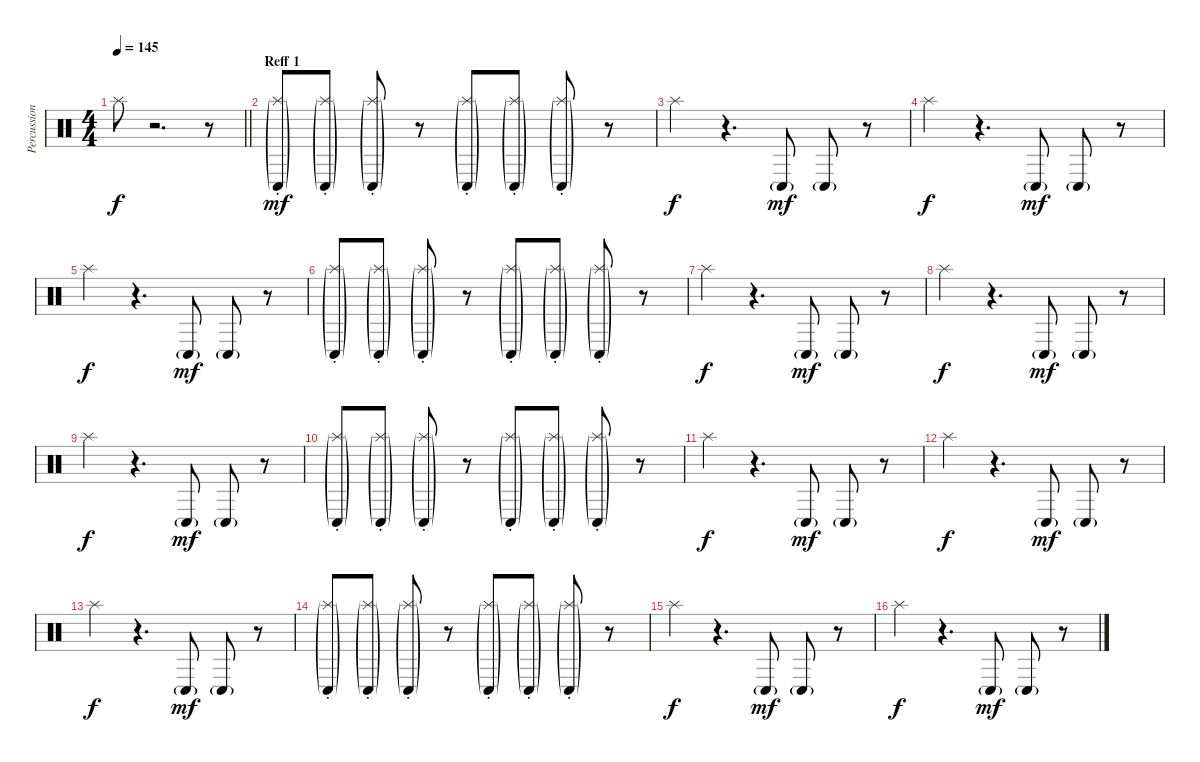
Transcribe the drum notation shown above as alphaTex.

\track ("Percussion 2" "Percussion") {instrument percussion}
\staff {score}
\articulation defaults
\ts (4 4)
\tempo 145
\clef neutral
\barLineRight lightlight
\ks c "Splash (hit)".8{dy f}
r.2{d} r.8 |
\section ("" "Reff 1")
("Splash (hit)"{g st} "Conga low (hit)"{g}).8{dy mf} ("Splash (hit)"{g st} "Conga low (hit)"{g}).8 ("Splash (hit)"{g st} "Conga low (hit)"{g}).8 r.8 ("Splash (hit)"{g st} "Conga low (hit)"{g}).8 ("Splash (hit)"{g st} "Conga low (hit)"{g}).8 ("Splash (hit)"{g st} "Conga low (hit)"{g}).8 r.8 |
"Splash (hit)".4{dy f} r.4{d} "Conga low (hit)"{g}.8{dy mf} "Conga low (hit)"{g}.8 r.8 |
"Splash (hit)".4{dy f} r.4{d} "Conga low (hit)"{g}.8{dy mf} "Conga low (hit)"{g}.8 r.8 |
"Splash (hit)".4{dy f} r.4{d} "Conga low (hit)"{g}.8{dy mf} "Conga low (hit)"{g}.8 r.8 |
("Splash (hit)"{g st} "Conga low (hit)"{g}).8 ("Splash (hit)"{g st} "Conga low (hit)"{g}).8 ("Splash (hit)"{g st} "Conga low (hit)"{g}).8 r.8 ("Splash (hit)"{g st} "Conga low (hit)"{g}).8 ("Splash (hit)"{g st} "Conga low (hit)"{g}).8 ("Splash (hit)"{g st} "Conga low (hit)"{g}).8 r.8 |
"Splash (hit)".4{dy f} r.4{d} "Conga low (hit)"{g}.8{dy mf} "Conga low (hit)"{g}.8 r.8 |
"Splash (hit)".4{dy f} r.4{d} "Conga low (hit)"{g}.8{dy mf} "Conga low (hit)"{g}.8 r.8 |
"Splash (hit)".4{dy f} r.4{d} "Conga low (hit)"{g}.8{dy mf} "Conga low (hit)"{g}.8 r.8 |
("Splash (hit)"{g st} "Conga low (hit)"{g}).8 ("Splash (hit)"{g st} "Conga low (hit)"{g}).8 ("Splash (hit)"{g st} "Conga low (hit)"{g}).8 r.8 ("Splash (hit)"{g st} "Conga low (hit)"{g}).8 ("Splash (hit)"{g st} "Conga low (hit)"{g}).8 ("Splash (hit)"{g st} "Conga low (hit)"{g}).8 r.8 |
"Splash (hit)".4{dy f} r.4{d} "Conga low (hit)"{g}.8{dy mf} "Conga low (hit)"{g}.8 r.8 |
"Splash (hit)".4{dy f} r.4{d} "Conga low (hit)"{g}.8{dy mf} "Conga low (hit)"{g}.8 r.8 |
"Splash (hit)".4{dy f} r.4{d} "Conga low (hit)"{g}.8{dy mf} "Conga low (hit)"{g}.8 r.8 |
("Splash (hit)"{g st} "Conga low (hit)"{g}).8 ("Splash (hit)"{g st} "Conga low (hit)"{g}).8 ("Splash (hit)"{g st} "Conga low (hit)"{g}).8 r.8 ("Splash (hit)"{g st} "Conga low (hit)"{g}).8 ("Splash (hit)"{g st} "Conga low (hit)"{g}).8 ("Splash (hit)"{g st} "Conga low (hit)"{g}).8 r.8 |
"Splash (hit)".4{dy f} r.4{d} "Conga low (hit)"{g}.8{dy mf} "Conga low (hit)"{g}.8 r.8 |
"Splash (hit)".4{dy f} r.4{d} "Conga low (hit)"{g}.8{dy mf} "Conga low (hit)"{g}.8 r.8
